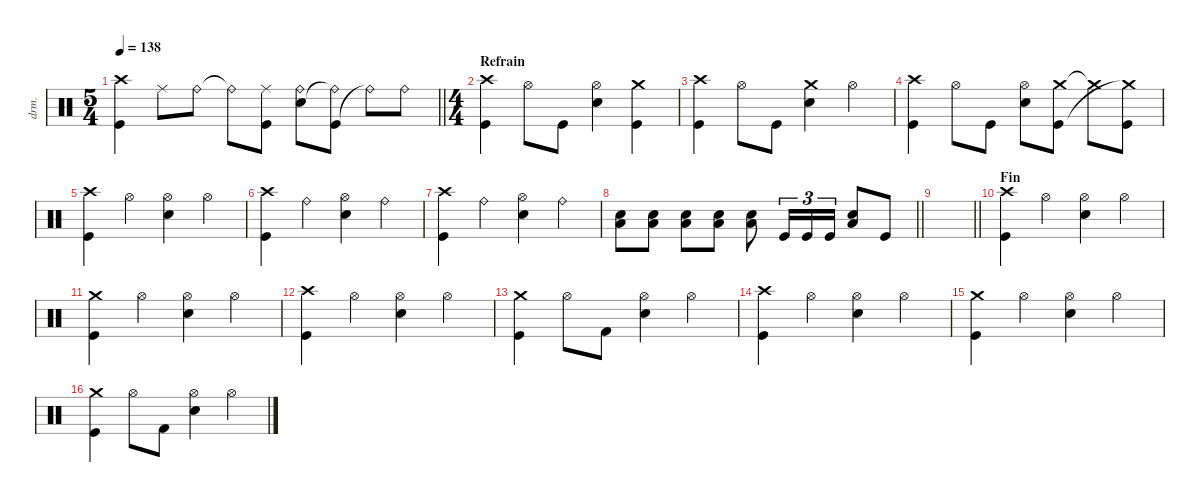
\defaultSystemsLayout 4
\hideDynamics
\bracketExtendMode nobrackets
\track ("Percussions" "drm.") {instrument percussion}
\staff {score}
\articulation defaults
\ts (5 4)
\tempo 138
\clef neutral
\barLineRight lightlight
\ks aminor
("Crash high (hit)" "Kick (hit)").4{dy f} "Ride (middle)".8 "Ride (bell)".8 "Ride (bell)"{t}.8 ("Ride (middle)" "Kick (hit)").8 ("Ride (bell)" "Snare (hit) 2").8 ("Kick (hit)" "Ride (bell)"{t}).8 "Ride (bell)"{t}.8 "Ride (bell)".8 |
\ts (4 4)
\beaming (8 2 2 2 2)
\section ("" "Refrain")
("Kick (hit)" "Crash high (hit)").4 "Hi-Hat (open)".8 "Kick (hit)".8 ("Hi-Hat (open)" "Snare (hit) 2").4 ("Crash medium (hit)" "Kick (hit)").4 |
("Kick (hit)" "Crash high (hit)").4 "Hi-Hat (open)".8 "Kick (hit)".8 ("Crash medium (hit)" "Snare (hit) 2").4 "Hi-Hat (open)".4 |
("Kick (hit)" "Crash high (hit)").4 "Hi-Hat (open)".8 "Kick (hit)".8 ("Hi-Hat (open)" "Snare (hit) 2").8 ("Crash medium (hit)" "Kick (hit)").8 "Crash medium (hit)"{t}.8 ("Kick (hit)" "Crash medium (hit)"{t}).8 |
("Kick (hit)" "Crash high (hit)").4 "Hi-Hat (open)".4 ("Hi-Hat (open)" "Snare (hit) 2").4 "Hi-Hat (open)".4 |
("Kick (hit)" "Crash high (hit)").4 "Ride (bell)".4 ("Hi-Hat (open)" "Snare (hit) 2").4 "Ride (bell)".4 |
("Kick (hit)" "Crash high (hit)").4 "Ride (bell)".4 ("Hi-Hat (open)" "Snare (hit) 2").4 "Ride (bell)".4 |
\barLineRight lightlight
("Snare (hit) 2" "Low Tom (hit)").8 ("Snare (hit) 2" "Low Tom (hit)").8 ("Snare (hit) 2" "Low Tom (hit)").8 ("Snare (hit) 2" "Low Tom (hit)").8 ("Snare (hit) 2" "Low Tom (hit)").8 "Kick (hit)".16{tu (3 2)} "Kick (hit)".16{tu (3 2)} "Kick (hit)".16{tu (3 2)} ("Snare (hit) 2" "Low Tom (hit)").8 "Kick (hit)".8 |
\barLineRight lightlight
|
\section ("" "Fin")
("Crash high (hit)" "Kick (hit)").4{beam Down} "Hi-Hat (open)".4{beam Down} ("Hi-Hat (open)" "Snare (hit) 2").4{beam Down} "Hi-Hat (open)".4{beam Down} |
("Crash medium (hit)" "Kick (hit)").4{beam Down} "Hi-Hat (open)".4{beam Down} ("Hi-Hat (open)" "Snare (hit) 2").4{beam Down} "Hi-Hat (open)".4{beam Down} |
("Crash high (hit)" "Kick (hit)").4{beam Down} "Hi-Hat (open)".4{beam Down} ("Hi-Hat (open)" "Snare (hit) 2").4{beam Down} "Hi-Hat (open)".4{beam Down} |
("Crash medium (hit)" "Kick (hit)").4{beam Down} "Hi-Hat (open)".8{beam Down} "Kick (hit) 2".8{beam Down} ("Hi-Hat (open)" "Snare (hit) 2").4{beam Down} "Hi-Hat (open)".4{beam Down} |
("Crash high (hit)" "Kick (hit)").4{beam Down} "Hi-Hat (open)".4{beam Down} ("Hi-Hat (open)" "Snare (hit) 2").4{beam Down} "Hi-Hat (open)".4{beam Down} |
("Crash medium (hit)" "Kick (hit)").4{beam Down} "Hi-Hat (open)".4{beam Down} ("Hi-Hat (open)" "Snare (hit) 2").4{beam Down} "Hi-Hat (open)".4{beam Down} |
("Crash medium (hit)" "Kick (hit)").4{beam Down} "Hi-Hat (open)".8{beam Down} "Kick (hit) 2".8{beam Down} ("Hi-Hat (open)" "Snare (hit) 2").4{beam Down} "Hi-Hat (open)".4{beam Down}
